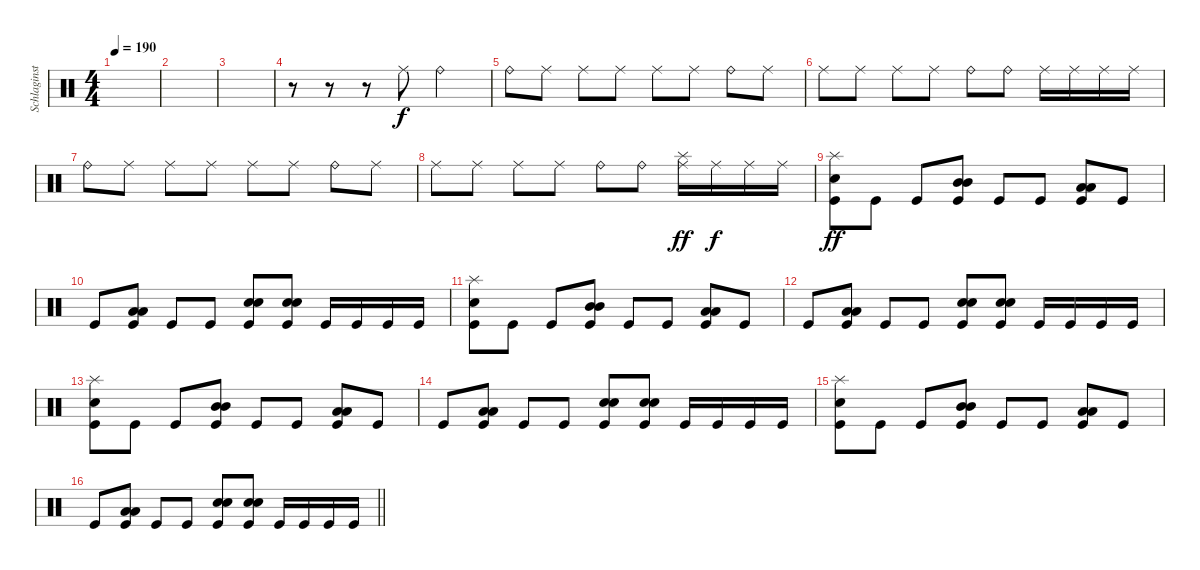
\track ("Schlaginstrumente - Auswahl" "Schlaginst") {instrument percussion}
\staff {score}
\articulation defaults
\ts (4 4)
\tempo 190
\clef neutral
\ks c
|
|
|
r.8 r.8 r.8 "Ride (middle)".8 "Ride (bell)".2 |
"Ride (bell)".8{dy f} "Ride (middle)".8 "Ride (middle)".8 "Ride (middle)".8 "Ride (middle)".8 "Ride (middle)".8 "Ride (bell)".8 "Ride (middle)".8 |
"Ride (middle)".8 "Ride (middle)".8 "Ride (middle)".8 "Ride (middle)".8 "Ride (bell)".8 "Ride (bell)".8 "Ride (middle)".16 "Ride (middle)".16 "Ride (middle)".16 "Ride (middle)".16 |
"Ride (bell)".8 "Ride (middle)".8 "Ride (middle)".8 "Ride (middle)".8 "Ride (middle)".8 "Ride (middle)".8 "Ride (bell)".8 "Ride (middle)".8 |
"Ride (middle)".8 "Ride (middle)".8 "Ride (middle)".8 "Ride (middle)".8 "Ride (bell)".8 "Ride (bell)".8 ("Splash (hit)" "Ride (middle)").16{dy ff} "Ride (middle)".16{dy f} "Ride (middle)".16 "Ride (middle)".16 |
("Splash (hit)" "Electric Snare (hit)" "Kick (hit)").8{dy ff} "Kick (hit)".8 "Kick (hit)".8 ("Mid Tom (hit)" "Mid Tom (hit)" "Kick (hit)").8 "Kick (hit)".8 "Kick (hit)".8 ("Low Tom (hit)" "Low Tom (hit)" "Kick (hit)").8 "Kick (hit)".8 |
"Kick (hit)".8 ("Low Floor Tom (hit)" "Low Floor Tom (hit)" "Kick (hit)").8 "Kick (hit)".8 "Kick (hit)".8 ("Electric Snare (hit)" "Electric Snare (hit)" "Kick (hit)").8 ("Electric Snare (hit)" "Electric Snare (hit)" "Kick (hit)").8 "Kick (hit)".16 "Kick (hit)".16 "Kick (hit)".16 "Kick (hit)".16 |
("Splash (hit)" "Electric Snare (hit)" "Kick (hit)").8 "Kick (hit)".8 "Kick (hit)".8 ("Mid Tom (hit)" "Mid Tom (hit)" "Kick (hit)").8 "Kick (hit)".8 "Kick (hit)".8 ("Low Tom (hit)" "Low Tom (hit)" "Kick (hit)").8 "Kick (hit)".8 |
"Kick (hit)".8 ("Low Floor Tom (hit)" "Low Floor Tom (hit)" "Kick (hit)").8 "Kick (hit)".8 "Kick (hit)".8 ("Electric Snare (hit)" "Electric Snare (hit)" "Kick (hit)").8 ("Electric Snare (hit)" "Electric Snare (hit)" "Kick (hit)").8 "Kick (hit)".16 "Kick (hit)".16 "Kick (hit)".16 "Kick (hit)".16 |
("Splash (hit)" "Electric Snare (hit)" "Kick (hit)").8 "Kick (hit)".8 "Kick (hit)".8 ("Mid Tom (hit)" "Mid Tom (hit)" "Kick (hit)").8 "Kick (hit)".8 "Kick (hit)".8 ("Low Tom (hit)" "Low Tom (hit)" "Kick (hit)").8 "Kick (hit)".8 |
"Kick (hit)".8 ("Low Floor Tom (hit)" "Low Floor Tom (hit)" "Kick (hit)").8 "Kick (hit)".8 "Kick (hit)".8 ("Electric Snare (hit)" "Electric Snare (hit)" "Kick (hit)").8 ("Electric Snare (hit)" "Electric Snare (hit)" "Kick (hit)").8 "Kick (hit)".16 "Kick (hit)".16 "Kick (hit)".16 "Kick (hit)".16 |
("Splash (hit)" "Electric Snare (hit)" "Kick (hit)").8 "Kick (hit)".8 "Kick (hit)".8 ("Mid Tom (hit)" "Mid Tom (hit)" "Kick (hit)").8 "Kick (hit)".8 "Kick (hit)".8 ("Low Tom (hit)" "Low Tom (hit)" "Kick (hit)").8 "Kick (hit)".8 |
\barLineRight lightlight "Kick (hit)".8
("Low Floor Tom (hit)" "Low Floor Tom (hit)" "Kick (hit)").8 "Kick (hit)".8 "Kick (hit)".8 ("Electric Snare (hit)" "Electric Snare (hit)" "Kick (hit)").8 ("Electric Snare (hit)" "Electric Snare (hit)" "Kick (hit)").8 "Kick (hit)".16 "Kick (hit)".16 "Kick (hit)".16 "Kick (hit)".16
